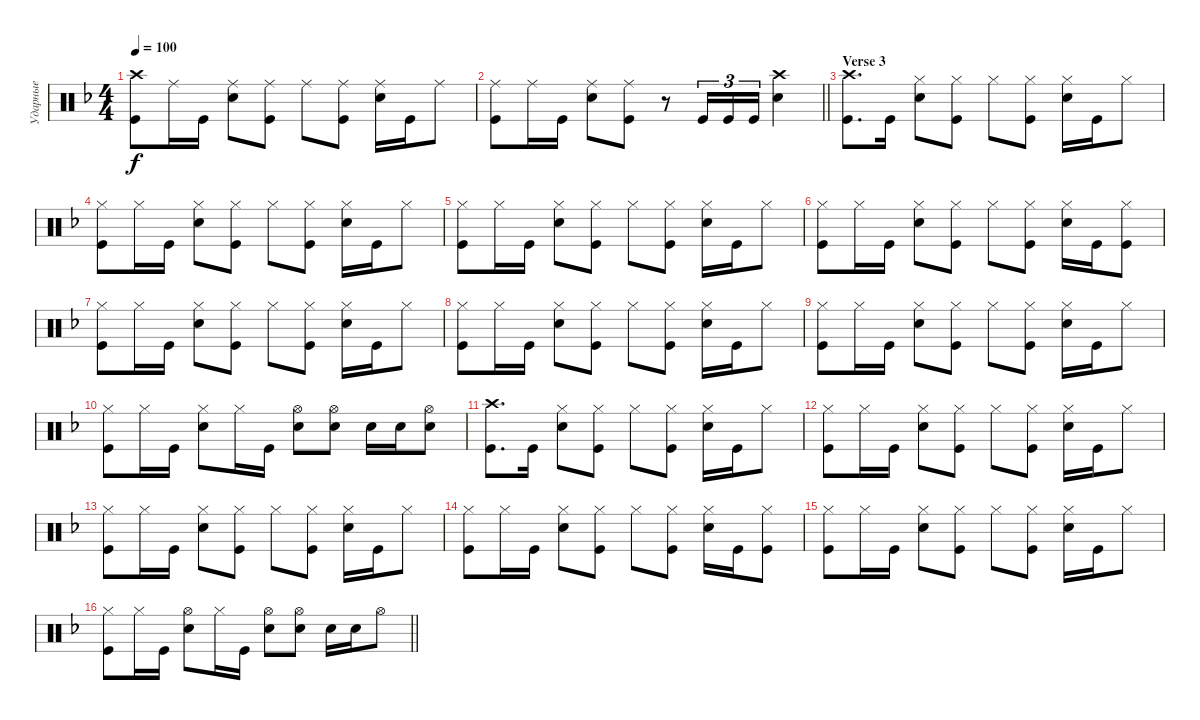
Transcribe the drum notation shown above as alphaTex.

\track ("Ударные" "Ударные") {instrument percussion}
\staff {score}
\articulation defaults
\ts (4 4)
\tempo 100
\clef neutral
\ks dminor
("Kick (hit)" "Crash high (hit)").8{dy f} "Ride (middle)".16 "Kick (hit)".16 ("Snare (hit) 2" "Ride (middle)").8 ("Kick (hit)" "Ride (middle)").8 "Ride (middle)".8 ("Ride (middle)" "Kick (hit)").8 ("Snare (hit) 2" "Ride (middle)").16 "Kick (hit)".16 "Ride (middle)".8 |
\barLineRight lightlight
("Kick (hit)" "Ride (middle)").8 "Ride (middle)".16 "Kick (hit)".16 ("Snare (hit) 2" "Ride (middle)").8 ("Kick (hit)" "Ride (middle)").8 r.8 "Kick (hit)".16{tu (3 2)} "Kick (hit)".16{tu (3 2)} "Kick (hit)".16{tu (3 2)} ("Snare (hit) 2" "Crash high (hit)").4 |
\section ("" "Verse 3")
("Kick (hit)" "Crash high (hit)").8{d} "Kick (hit)".16 ("Snare (hit) 2" "Hi-Hat (closed)").8 ("Kick (hit)" "Hi-Hat (closed)").8 "Hi-Hat (closed)".8 ("Hi-Hat (closed)" "Kick (hit)").8 ("Snare (hit) 2" "Hi-Hat (closed)").16 "Kick (hit)".16 "Hi-Hat (closed)".8 |
("Kick (hit)" "Hi-Hat (closed)").8 "Hi-Hat (closed)".16 "Kick (hit)".16 ("Snare (hit) 2" "Hi-Hat (closed)").8 ("Kick (hit)" "Hi-Hat (closed)").8 "Hi-Hat (closed)".8 ("Hi-Hat (closed)" "Kick (hit)").8 ("Snare (hit) 2" "Hi-Hat (closed)").16 "Kick (hit)".16 "Hi-Hat (closed)".8 |
("Kick (hit)" "Hi-Hat (closed)").8 "Hi-Hat (closed)".16 "Kick (hit)".16 ("Snare (hit) 2" "Hi-Hat (closed)").8 ("Kick (hit)" "Hi-Hat (closed)").8 "Hi-Hat (closed)".8 ("Hi-Hat (closed)" "Kick (hit)").8 ("Snare (hit) 2" "Hi-Hat (closed)").16 "Kick (hit)".16 "Hi-Hat (closed)".8 |
("Kick (hit)" "Hi-Hat (closed)").8 "Hi-Hat (closed)".16 "Kick (hit)".16 ("Snare (hit) 2" "Hi-Hat (closed)").8 ("Kick (hit)" "Hi-Hat (closed)").8 "Hi-Hat (closed)".8 ("Hi-Hat (closed)" "Kick (hit)").8 ("Snare (hit) 2" "Hi-Hat (closed)").16 "Kick (hit)".16 ("Kick (hit)" "Hi-Hat (closed)").8 |
("Kick (hit)" "Hi-Hat (closed)").8 "Hi-Hat (closed)".16 "Kick (hit)".16 ("Snare (hit) 2" "Hi-Hat (closed)").8 ("Kick (hit)" "Hi-Hat (closed)").8 "Hi-Hat (closed)".8 ("Hi-Hat (closed)" "Kick (hit)").8 ("Snare (hit) 2" "Hi-Hat (closed)").16 "Kick (hit)".16 "Hi-Hat (closed)".8 |
("Kick (hit)" "Hi-Hat (closed)").8 "Hi-Hat (closed)".16 "Kick (hit)".16 ("Snare (hit) 2" "Hi-Hat (closed)").8 ("Kick (hit)" "Hi-Hat (closed)").8 "Hi-Hat (closed)".8 ("Hi-Hat (closed)" "Kick (hit)").8 ("Snare (hit) 2" "Hi-Hat (closed)").16 "Kick (hit)".16 "Hi-Hat (closed)".8 |
("Kick (hit)" "Hi-Hat (closed)").8 "Hi-Hat (closed)".16 "Kick (hit)".16 ("Snare (hit) 2" "Hi-Hat (closed)").8 ("Kick (hit)" "Hi-Hat (closed)").8 "Hi-Hat (closed)".8 ("Hi-Hat (closed)" "Kick (hit)").8 ("Snare (hit) 2" "Hi-Hat (closed)").16 "Kick (hit)".16 "Hi-Hat (closed)".8 |
("Kick (hit)" "Hi-Hat (closed)").8 "Hi-Hat (closed)".16 "Kick (hit)".16 ("Snare (hit) 2" "Hi-Hat (closed)").8 "Hi-Hat (closed)".16 "Kick (hit)".16 ("Snare (hit) 2" "Hi-Hat (open)").8 ("Snare (hit) 2" "Hi-Hat (open)").8 "Snare (hit) 2".16 "Snare (hit) 2".16 ("Snare (hit) 2" "Hi-Hat (open)").8 |
("Kick (hit)" "Crash high (hit)").8{d} "Kick (hit)".16 ("Snare (hit) 2" "Hi-Hat (closed)").8 ("Kick (hit)" "Hi-Hat (closed)").8 "Hi-Hat (closed)".8 ("Hi-Hat (closed)" "Kick (hit)").8 ("Snare (hit) 2" "Hi-Hat (closed)").16 "Kick (hit)".16 "Hi-Hat (closed)".8 |
("Kick (hit)" "Hi-Hat (closed)").8 "Hi-Hat (closed)".16 "Kick (hit)".16 ("Snare (hit) 2" "Hi-Hat (closed)").8 ("Kick (hit)" "Hi-Hat (closed)").8 "Hi-Hat (closed)".8 ("Hi-Hat (closed)" "Kick (hit)").8 ("Snare (hit) 2" "Hi-Hat (closed)").16 "Kick (hit)".16 "Hi-Hat (closed)".8 |
("Kick (hit)" "Hi-Hat (closed)").8 "Hi-Hat (closed)".16 "Kick (hit)".16 ("Snare (hit) 2" "Hi-Hat (closed)").8 ("Kick (hit)" "Hi-Hat (closed)").8 "Hi-Hat (closed)".8 ("Hi-Hat (closed)" "Kick (hit)").8 ("Snare (hit) 2" "Hi-Hat (closed)").16 "Kick (hit)".16 "Hi-Hat (closed)".8 |
("Kick (hit)" "Hi-Hat (closed)").8 "Hi-Hat (closed)".16 "Kick (hit)".16 ("Snare (hit) 2" "Hi-Hat (closed)").8 ("Kick (hit)" "Hi-Hat (closed)").8 "Hi-Hat (closed)".8 ("Hi-Hat (closed)" "Kick (hit)").8 ("Snare (hit) 2" "Hi-Hat (closed)").16 "Kick (hit)".16 ("Hi-Hat (closed)" "Kick (hit)").8 |
("Kick (hit)" "Hi-Hat (closed)").8 "Hi-Hat (closed)".16 "Kick (hit)".16 ("Snare (hit) 2" "Hi-Hat (closed)").8 ("Kick (hit)" "Hi-Hat (closed)").8 "Hi-Hat (closed)".8 ("Hi-Hat (closed)" "Kick (hit)").8 ("Snare (hit) 2" "Hi-Hat (closed)").16 "Kick (hit)".16 "Hi-Hat (closed)".8 |
\barLineRight lightlight
("Kick (hit)" "Hi-Hat (closed)").8 "Hi-Hat (closed)".16 "Kick (hit)".16 ("Snare (hit) 2" "Hi-Hat (open)").8 "Hi-Hat (closed)".16 "Kick (hit)".16 ("Snare (hit) 2" "Hi-Hat (open)").8 ("Snare (hit) 2" "Hi-Hat (open)").8 "Snare (hit) 2".16 "Snare (hit) 2".16 "Hi-Hat (open)".8
